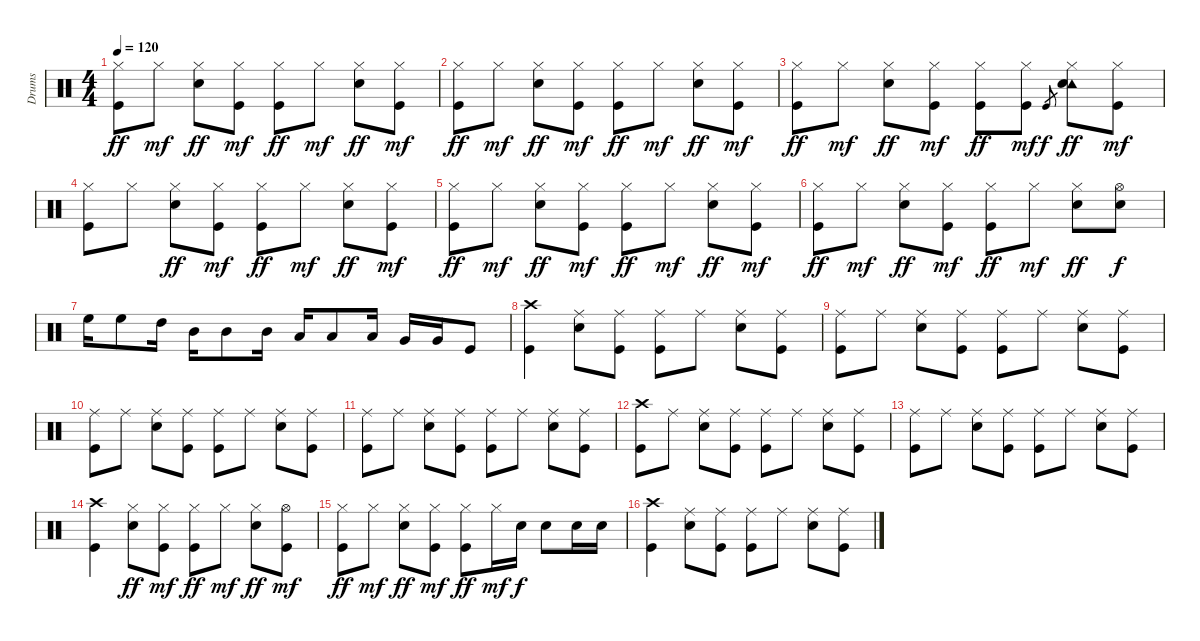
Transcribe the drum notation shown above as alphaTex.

\track ("Drums" "Drums") {instrument percussion}
\staff {score}
\articulation defaults
\ts (4 4)
\tempo 120
\clef neutral
\ks c
("Hi-Hat (closed)" "Kick (hit)").8{dy ff} "Hi-Hat (closed)".8{dy mf} ("Hi-Hat (closed)" "Snare (hit) 2").8{dy ff} ("Hi-Hat (closed)" "Kick (hit)").8{dy mf} ("Hi-Hat (closed)" "Kick (hit)").8{dy ff} "Hi-Hat (closed)".8{dy mf} ("Hi-Hat (closed)" "Snare (hit) 2").8{dy ff} ("Hi-Hat (closed)" "Kick (hit)").8{dy mf} |
("Hi-Hat (closed)" "Kick (hit)").8{dy ff} "Hi-Hat (closed)".8{dy mf} ("Hi-Hat (closed)" "Snare (hit) 2").8{dy ff} ("Hi-Hat (closed)" "Kick (hit)").8{dy mf} ("Hi-Hat (closed)" "Kick (hit)").8{dy ff} "Hi-Hat (closed)".8{dy mf} ("Hi-Hat (closed)" "Snare (hit) 2").8{dy ff} ("Hi-Hat (closed)" "Kick (hit)").8{dy mf} |
("Hi-Hat (closed)" "Kick (hit)").8{dy ff} "Hi-Hat (closed)".8{dy mf} ("Hi-Hat (closed)" "Snare (hit) 2").8{dy ff} ("Hi-Hat (closed)" "Kick (hit)").8{dy mf} ("Hi-Hat (closed)" "Kick (hit)").8{dy ff} ("Hi-Hat (closed)" "Kick (hit)").8{dy mf} "Kick (hit)".8{gr dy f} ("Hi-Hat (closed)" "Tambourine (hit)" "Snare (hit) 2").8{dy ff} ("Hi-Hat (closed)" "Kick (hit)").8{dy mf} |
("Hi-Hat (closed)" "Kick (hit)").8 "Hi-Hat (closed)".8 ("Hi-Hat (closed)" "Snare (hit) 2").8{dy ff} ("Hi-Hat (closed)" "Kick (hit)").8{dy mf} ("Hi-Hat (closed)" "Kick (hit)").8{dy ff} "Hi-Hat (closed)".8{dy mf} ("Hi-Hat (closed)" "Snare (hit) 2").8{dy ff} ("Hi-Hat (closed)" "Kick (hit)").8{dy mf} |
("Hi-Hat (closed)" "Kick (hit)").8{dy ff} "Hi-Hat (closed)".8{dy mf} ("Hi-Hat (closed)" "Snare (hit) 2").8{dy ff} ("Hi-Hat (closed)" "Kick (hit)").8{dy mf} ("Hi-Hat (closed)" "Kick (hit)").8{dy ff} "Hi-Hat (closed)".8{dy mf} ("Hi-Hat (closed)" "Snare (hit) 2").8{dy ff} ("Hi-Hat (closed)" "Kick (hit)").8{dy mf} |
("Hi-Hat (closed)" "Kick (hit)").8{dy ff} "Hi-Hat (closed)".8{dy mf} ("Hi-Hat (closed)" "Snare (hit) 2").8{dy ff} ("Hi-Hat (closed)" "Kick (hit)").8{dy mf} ("Hi-Hat (closed)" "Kick (hit)").8{dy ff} "Hi-Hat (closed)".8{dy mf} ("Hi-Hat (closed)" "Snare (hit) 2").8{dy ff} ("Hi-Hat (open)" "Snare (hit) 2").8{dy f} |
"High Floor Tom (hit)".16 "High Floor Tom (hit)".8 "High Tom (hit)".16 "Mid Tom (hit)".16 "Mid Tom (hit)".8 "Mid Tom (hit)".16 "Low Tom (hit)".16 "Low Tom (hit)".8 "Low Tom (hit)".16 "Very Low Tom (hit)".16 "Very Low Tom (hit)".16 "Kick (hit)".8 |
("Crash high (hit)" "Kick (hit)").4 ("Ride (middle)" "Snare (hit) 2").8 ("Ride (middle)" "Kick (hit)").8 ("Ride (middle)" "Kick (hit)").8 "Ride (middle)".8 ("Ride (middle)" "Snare (hit) 2").8 ("Ride (middle)" "Kick (hit)").8 |
("Ride (middle)" "Kick (hit)").8 "Ride (middle)".8 ("Ride (middle)" "Snare (hit) 2").8 ("Ride (middle)" "Kick (hit)").8 ("Ride (middle)" "Kick (hit)").8 "Ride (middle)".8 ("Ride (middle)" "Snare (hit) 2").8 ("Ride (middle)" "Kick (hit)").8 |
("Ride (middle)" "Kick (hit)").8 "Ride (middle)".8 ("Ride (middle)" "Snare (hit) 2").8 ("Ride (middle)" "Kick (hit)").8 ("Ride (middle)" "Kick (hit)").8 "Ride (middle)".8 ("Ride (middle)" "Snare (hit) 2").8 ("Ride (middle)" "Kick (hit)").8 |
("Ride (middle)" "Kick (hit)").8 "Ride (middle)".8 ("Ride (middle)" "Snare (hit) 2").8 ("Ride (middle)" "Kick (hit)").8 ("Ride (middle)" "Kick (hit)").8 "Ride (middle)".8 ("Ride (middle)" "Snare (hit) 2").8 ("Ride (middle)" "Kick (hit)").8 |
("Crash high (hit)" "Kick (hit)").8 "Ride (middle)".8 ("Ride (middle)" "Snare (hit) 2").8 ("Ride (middle)" "Kick (hit)").8 ("Ride (middle)" "Kick (hit)").8 "Ride (middle)".8 ("Ride (middle)" "Snare (hit) 2").8 ("Ride (middle)" "Kick (hit)").8 |
("Ride (middle)" "Kick (hit)").8 "Ride (middle)".8 ("Ride (middle)" "Snare (hit) 2").8 ("Ride (middle)" "Kick (hit)").8 ("Ride (middle)" "Kick (hit)").8 "Ride (middle)".8 ("Ride (middle)" "Snare (hit) 2").8 ("Ride (middle)" "Kick (hit)").8 |
("Crash high (hit)" "Kick (hit)").4 ("Hi-Hat (closed)" "Snare (hit) 2").8{dy ff} ("Hi-Hat (closed)" "Kick (hit)").8{dy mf} ("Hi-Hat (closed)" "Kick (hit)").8{dy ff} "Hi-Hat (closed)".8{dy mf} ("Hi-Hat (closed)" "Snare (hit) 2").8{dy ff} ("Hi-Hat (open)" "Kick (hit)").8{dy mf} |
("Hi-Hat (closed)" "Kick (hit)").8{dy ff} "Hi-Hat (closed)".8{dy mf} ("Hi-Hat (closed)" "Snare (hit) 2").8{dy ff} ("Hi-Hat (closed)" "Kick (hit)").8{dy mf} ("Hi-Hat (closed)" "Kick (hit)").8{dy ff} "Hi-Hat (closed)".16{dy mf} "Snare (hit) 2".16{dy f} "Snare (hit) 2".8 "Snare (hit) 2".16 "Snare (hit) 2".16 |
("Crash high (hit)" "Kick (hit)").4 ("Ride (middle)" "Snare (hit) 2").8 ("Ride (middle)" "Kick (hit)").8 ("Ride (middle)" "Kick (hit)").8 "Ride (middle)".8 ("Ride (middle)" "Snare (hit) 2").8 ("Ride (middle)" "Kick (hit)").8
